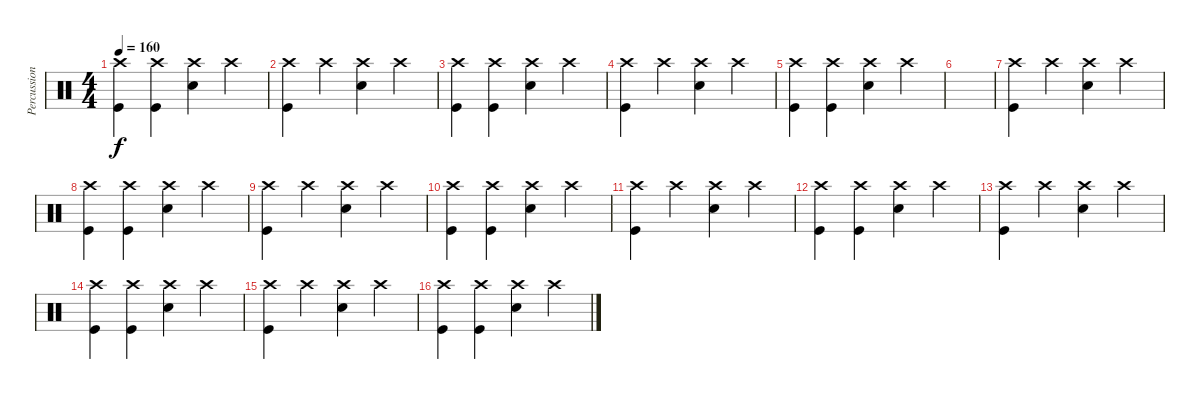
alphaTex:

\track ("Percussions" "Percussion") {instrument percussion}
\staff {score}
\articulation defaults
\ts (4 4)
\tempo 160
\clef neutral
\ks c
("Kick (hit)" "Crash high (hit)").4{dy f} ("Kick (hit)" "Crash high (hit)").4 ("Crash high (hit)" "Snare (hit) 2").4 "Crash high (hit)".4 |
("Kick (hit)" "Crash high (hit)").4{volume 0} "Crash high (hit)".4 ("Snare (hit) 2" "Crash high (hit)").4 "Crash high (hit)".4 |
("Kick (hit)" "Crash high (hit)").4 ("Kick (hit)" "Crash high (hit)").4 ("Crash high (hit)" "Snare (hit) 2").4 "Crash high (hit)".4 |
("Kick (hit)" "Crash high (hit)").4 "Crash high (hit)".4 ("Snare (hit) 2" "Crash high (hit)").4 "Crash high (hit)".4 |
("Kick (hit)" "Crash high (hit)").4 ("Kick (hit)" "Crash high (hit)").4 ("Crash high (hit)" "Snare (hit) 2").4 "Crash high (hit)".4 |
|
("Kick (hit)" "Crash high (hit)").4{volume 13} "Crash high (hit)".4 ("Snare (hit) 2" "Crash high (hit)").4 "Crash high (hit)".4 |
("Kick (hit)" "Crash high (hit)").4 ("Kick (hit)" "Crash high (hit)").4 ("Crash high (hit)" "Snare (hit) 2").4 "Crash high (hit)".4 |
("Kick (hit)" "Crash high (hit)").4 "Crash high (hit)".4 ("Snare (hit) 2" "Crash high (hit)").4 "Crash high (hit)".4 |
("Kick (hit)" "Crash high (hit)").4 ("Kick (hit)" "Crash high (hit)").4 ("Crash high (hit)" "Snare (hit) 2").4 "Crash high (hit)".4 |
("Kick (hit)" "Crash high (hit)").4 "Crash high (hit)".4 ("Snare (hit) 2" "Crash high (hit)").4 "Crash high (hit)".4 |
("Kick (hit)" "Crash high (hit)").4 ("Kick (hit)" "Crash high (hit)").4 ("Crash high (hit)" "Snare (hit) 2").4 "Crash high (hit)".4 |
("Kick (hit)" "Crash high (hit)").4 "Crash high (hit)".4 ("Snare (hit) 2" "Crash high (hit)").4 "Crash high (hit)".4 |
("Kick (hit)" "Crash high (hit)").4 ("Kick (hit)" "Crash high (hit)").4 ("Crash high (hit)" "Snare (hit) 2").4 "Crash high (hit)".4 |
("Kick (hit)" "Crash high (hit)").4 "Crash high (hit)".4 ("Snare (hit) 2" "Crash high (hit)").4 "Crash high (hit)".4 |
("Kick (hit)" "Crash high (hit)").4 ("Kick (hit)" "Crash high (hit)").4 ("Crash high (hit)" "Snare (hit) 2").4 "Crash high (hit)".4
